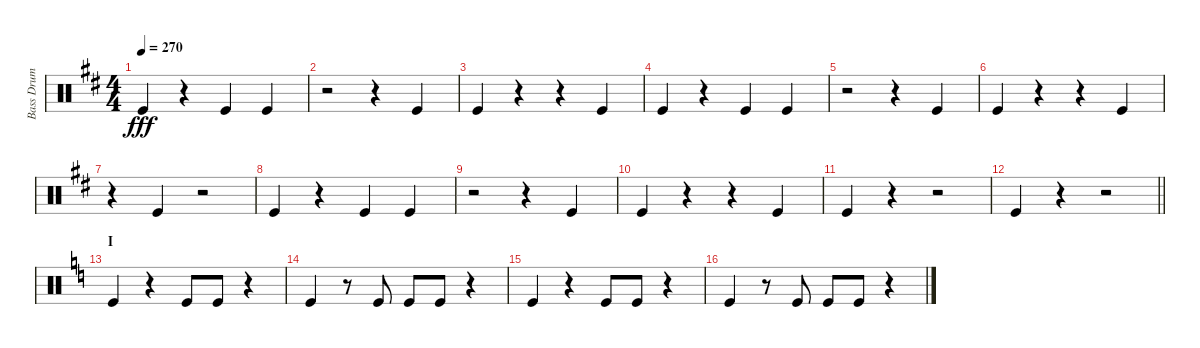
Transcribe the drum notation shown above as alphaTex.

\track ("Bass Drum" "Bass Drum") {instrument percussion}
\staff {score}
\articulation defaults
\ts (4 4)
\tempo 270
\clef neutral
\ks d "Kick (hit)".4{dy fff}
r.4 "Kick (hit)".4 "Kick (hit)".4 |
r.2 r.4 "Kick (hit)".4 |
"Kick (hit)".4 r.4 r.4 "Kick (hit)".4 |
"Kick (hit)".4 r.4 "Kick (hit)".4 "Kick (hit)".4 |
r.2 r.4 "Kick (hit)".4 |
"Kick (hit)".4 r.4 r.4 "Kick (hit)".4 |
r.4 "Kick (hit)".4 r.2 |
"Kick (hit)".4 r.4 "Kick (hit)".4 "Kick (hit)".4 |
r.2 r.4 "Kick (hit)".4 |
"Kick (hit)".4 r.4 r.4 "Kick (hit)".4 |
"Kick (hit)".4 r.4 r.2 |
\barLineRight lightlight "Kick (hit)".4
r.4 r.2 |
\section ("" "I")
\ks c "Kick (hit)".4
r.4 "Kick (hit)".8 "Kick (hit)".8 r.4 |
"Kick (hit)".4 r.8 "Kick (hit)".8 "Kick (hit)".8 "Kick (hit)".8 r.4 |
"Kick (hit)".4 r.4 "Kick (hit)".8 "Kick (hit)".8 r.4 |
"Kick (hit)".4 r.8 "Kick (hit)".8 "Kick (hit)".8 "Kick (hit)".8 r.4
